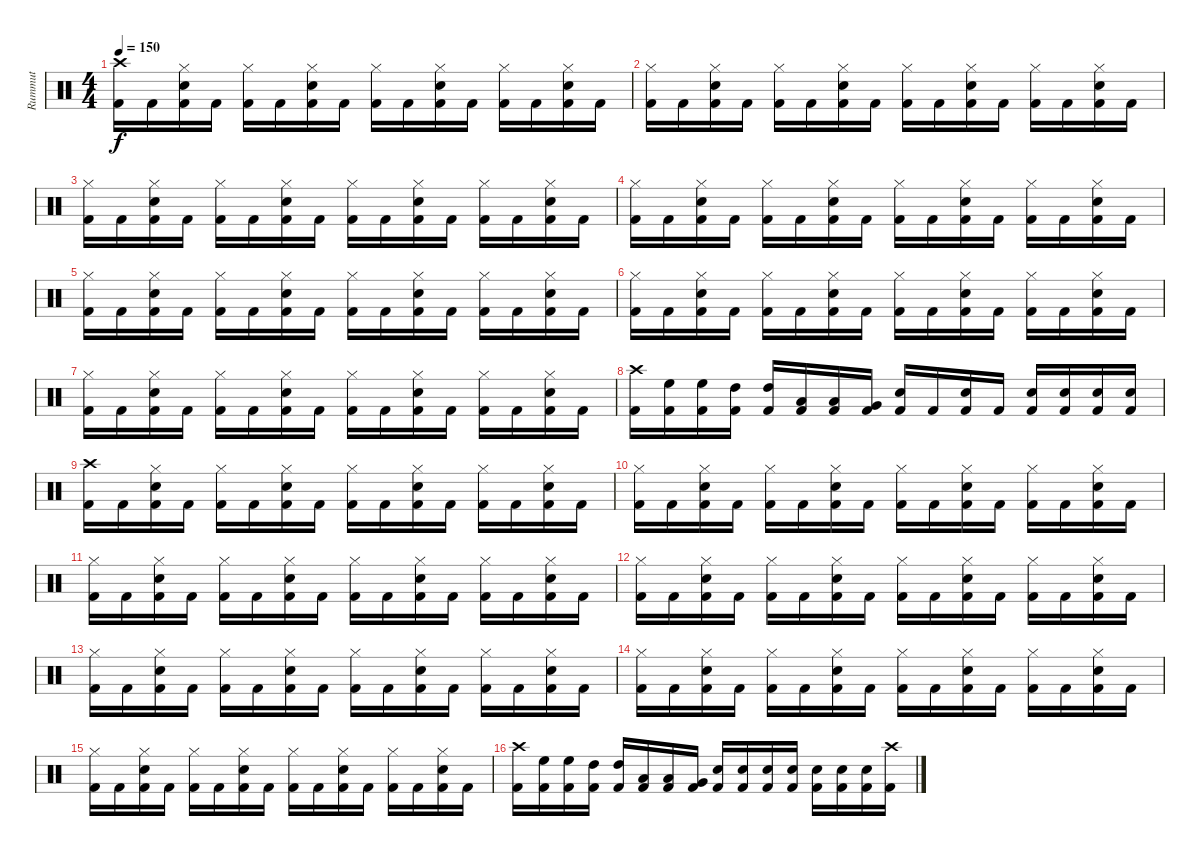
\track ("Rummut" "Rummut") {instrument percussion}
\staff {score}
\articulation defaults
\ts (4 4)
\tempo 150
\clef neutral
\ks c
("Crash high (hit)" "Kick (hit) 2").16{dy f} "Kick (hit) 2".16 ("Snare (hit) 2" "Hi-Hat (closed)" "Kick (hit) 2").16 "Kick (hit) 2".16 ("Hi-Hat (closed)" "Kick (hit) 2").16 "Kick (hit) 2".16 ("Snare (hit) 2" "Hi-Hat (closed)" "Kick (hit) 2").16 "Kick (hit) 2".16 ("Hi-Hat (closed)" "Kick (hit) 2").16 "Kick (hit) 2".16 ("Snare (hit) 2" "Hi-Hat (closed)" "Kick (hit) 2").16 "Kick (hit) 2".16 ("Hi-Hat (closed)" "Kick (hit) 2").16 "Kick (hit) 2".16 ("Snare (hit) 2" "Hi-Hat (closed)" "Kick (hit) 2").16 "Kick (hit) 2".16 |
("Hi-Hat (closed)" "Kick (hit) 2").16 "Kick (hit) 2".16 ("Snare (hit) 2" "Hi-Hat (closed)" "Kick (hit) 2").16 "Kick (hit) 2".16 ("Hi-Hat (closed)" "Kick (hit) 2").16 "Kick (hit) 2".16 ("Snare (hit) 2" "Hi-Hat (closed)" "Kick (hit) 2").16 "Kick (hit) 2".16 ("Hi-Hat (closed)" "Kick (hit) 2").16 "Kick (hit) 2".16 ("Snare (hit) 2" "Hi-Hat (closed)" "Kick (hit) 2").16 "Kick (hit) 2".16 ("Hi-Hat (closed)" "Kick (hit) 2").16 "Kick (hit) 2".16 ("Snare (hit) 2" "Hi-Hat (closed)" "Kick (hit) 2").16 "Kick (hit) 2".16 |
("Hi-Hat (closed)" "Kick (hit) 2").16 "Kick (hit) 2".16 ("Snare (hit) 2" "Hi-Hat (closed)" "Kick (hit) 2").16 "Kick (hit) 2".16 ("Hi-Hat (closed)" "Kick (hit) 2").16 "Kick (hit) 2".16 ("Snare (hit) 2" "Hi-Hat (closed)" "Kick (hit) 2").16 "Kick (hit) 2".16 ("Hi-Hat (closed)" "Kick (hit) 2").16 "Kick (hit) 2".16 ("Snare (hit) 2" "Hi-Hat (closed)" "Kick (hit) 2").16 "Kick (hit) 2".16 ("Hi-Hat (closed)" "Kick (hit) 2").16 "Kick (hit) 2".16 ("Snare (hit) 2" "Hi-Hat (closed)" "Kick (hit) 2").16 "Kick (hit) 2".16 |
("Hi-Hat (closed)" "Kick (hit) 2").16 "Kick (hit) 2".16 ("Snare (hit) 2" "Hi-Hat (closed)" "Kick (hit) 2").16 "Kick (hit) 2".16 ("Hi-Hat (closed)" "Kick (hit) 2").16 "Kick (hit) 2".16 ("Snare (hit) 2" "Hi-Hat (closed)" "Kick (hit) 2").16 "Kick (hit) 2".16 ("Hi-Hat (closed)" "Kick (hit) 2").16 "Kick (hit) 2".16 ("Snare (hit) 2" "Hi-Hat (closed)" "Kick (hit) 2").16 "Kick (hit) 2".16 ("Hi-Hat (closed)" "Kick (hit) 2").16 "Kick (hit) 2".16 ("Snare (hit) 2" "Hi-Hat (closed)" "Kick (hit) 2").16 "Kick (hit) 2".16 |
("Hi-Hat (closed)" "Kick (hit) 2").16 "Kick (hit) 2".16 ("Snare (hit) 2" "Hi-Hat (closed)" "Kick (hit) 2").16 "Kick (hit) 2".16 ("Hi-Hat (closed)" "Kick (hit) 2").16 "Kick (hit) 2".16 ("Snare (hit) 2" "Hi-Hat (closed)" "Kick (hit) 2").16 "Kick (hit) 2".16 ("Hi-Hat (closed)" "Kick (hit) 2").16 "Kick (hit) 2".16 ("Snare (hit) 2" "Hi-Hat (closed)" "Kick (hit) 2").16 "Kick (hit) 2".16 ("Hi-Hat (closed)" "Kick (hit) 2").16 "Kick (hit) 2".16 ("Snare (hit) 2" "Hi-Hat (closed)" "Kick (hit) 2").16 "Kick (hit) 2".16 |
("Hi-Hat (closed)" "Kick (hit) 2").16 "Kick (hit) 2".16 ("Snare (hit) 2" "Hi-Hat (closed)" "Kick (hit) 2").16 "Kick (hit) 2".16 ("Hi-Hat (closed)" "Kick (hit) 2").16 "Kick (hit) 2".16 ("Snare (hit) 2" "Hi-Hat (closed)" "Kick (hit) 2").16 "Kick (hit) 2".16 ("Hi-Hat (closed)" "Kick (hit) 2").16 "Kick (hit) 2".16 ("Snare (hit) 2" "Hi-Hat (closed)" "Kick (hit) 2").16 "Kick (hit) 2".16 ("Hi-Hat (closed)" "Kick (hit) 2").16 "Kick (hit) 2".16 ("Snare (hit) 2" "Hi-Hat (closed)" "Kick (hit) 2").16 "Kick (hit) 2".16 |
("Hi-Hat (closed)" "Kick (hit) 2").16 "Kick (hit) 2".16 ("Snare (hit) 2" "Hi-Hat (closed)" "Kick (hit) 2").16 "Kick (hit) 2".16 ("Hi-Hat (closed)" "Kick (hit) 2").16 "Kick (hit) 2".16 ("Snare (hit) 2" "Hi-Hat (closed)" "Kick (hit) 2").16 "Kick (hit) 2".16 ("Hi-Hat (closed)" "Kick (hit) 2").16 "Kick (hit) 2".16 ("Snare (hit) 2" "Hi-Hat (closed)" "Kick (hit) 2").16 "Kick (hit) 2".16 ("Hi-Hat (closed)" "Kick (hit) 2").16 "Kick (hit) 2".16 ("Snare (hit) 2" "Hi-Hat (closed)" "Kick (hit) 2").16 "Kick (hit) 2".16 |
("Crash high (hit)" "Kick (hit) 2").16 ("High Floor Tom (hit)" "Kick (hit) 2").16 ("High Floor Tom (hit)" "Kick (hit) 2").16 ("High Tom (hit)" "Kick (hit) 2").16 ("High Tom (hit)" "Kick (hit) 2").16 ("Low Tom (hit)" "Kick (hit) 2").16 ("Low Tom (hit)" "Kick (hit) 2").16 ("Very Low Tom (hit)" "Kick (hit) 2").16 ("Snare (hit) 2" "Kick (hit) 2").16 "Kick (hit) 2".16 ("Snare (hit) 2" "Kick (hit) 2").16 "Kick (hit) 2".16 ("Snare (hit) 2" "Kick (hit) 2").16 ("Snare (hit) 2" "Kick (hit) 2").16 ("Snare (hit) 2" "Kick (hit) 2").16 ("Snare (hit) 2" "Kick (hit) 2").16 |
("Crash high (hit)" "Kick (hit) 2").16 "Kick (hit) 2".16 ("Snare (hit) 2" "Hi-Hat (closed)" "Kick (hit) 2").16 "Kick (hit) 2".16 ("Hi-Hat (closed)" "Kick (hit) 2").16 "Kick (hit) 2".16 ("Snare (hit) 2" "Hi-Hat (closed)" "Kick (hit) 2").16 "Kick (hit) 2".16 ("Hi-Hat (closed)" "Kick (hit) 2").16 "Kick (hit) 2".16 ("Snare (hit) 2" "Hi-Hat (closed)" "Kick (hit) 2").16 "Kick (hit) 2".16 ("Hi-Hat (closed)" "Kick (hit) 2").16 "Kick (hit) 2".16 ("Snare (hit) 2" "Hi-Hat (closed)" "Kick (hit) 2").16 "Kick (hit) 2".16 |
("Hi-Hat (closed)" "Kick (hit) 2").16 "Kick (hit) 2".16 ("Snare (hit) 2" "Hi-Hat (closed)" "Kick (hit) 2").16 "Kick (hit) 2".16 ("Hi-Hat (closed)" "Kick (hit) 2").16 "Kick (hit) 2".16 ("Snare (hit) 2" "Hi-Hat (closed)" "Kick (hit) 2").16 "Kick (hit) 2".16 ("Hi-Hat (closed)" "Kick (hit) 2").16 "Kick (hit) 2".16 ("Snare (hit) 2" "Hi-Hat (closed)" "Kick (hit) 2").16 "Kick (hit) 2".16 ("Hi-Hat (closed)" "Kick (hit) 2").16 "Kick (hit) 2".16 ("Snare (hit) 2" "Hi-Hat (closed)" "Kick (hit) 2").16 "Kick (hit) 2".16 |
("Hi-Hat (closed)" "Kick (hit) 2").16 "Kick (hit) 2".16 ("Snare (hit) 2" "Hi-Hat (closed)" "Kick (hit) 2").16 "Kick (hit) 2".16 ("Hi-Hat (closed)" "Kick (hit) 2").16 "Kick (hit) 2".16 ("Snare (hit) 2" "Hi-Hat (closed)" "Kick (hit) 2").16 "Kick (hit) 2".16 ("Hi-Hat (closed)" "Kick (hit) 2").16 "Kick (hit) 2".16 ("Snare (hit) 2" "Hi-Hat (closed)" "Kick (hit) 2").16 "Kick (hit) 2".16 ("Hi-Hat (closed)" "Kick (hit) 2").16 "Kick (hit) 2".16 ("Snare (hit) 2" "Hi-Hat (closed)" "Kick (hit) 2").16 "Kick (hit) 2".16 |
("Hi-Hat (closed)" "Kick (hit) 2").16 "Kick (hit) 2".16 ("Snare (hit) 2" "Hi-Hat (closed)" "Kick (hit) 2").16 "Kick (hit) 2".16 ("Hi-Hat (closed)" "Kick (hit) 2").16 "Kick (hit) 2".16 ("Snare (hit) 2" "Hi-Hat (closed)" "Kick (hit) 2").16 "Kick (hit) 2".16 ("Hi-Hat (closed)" "Kick (hit) 2").16 "Kick (hit) 2".16 ("Snare (hit) 2" "Hi-Hat (closed)" "Kick (hit) 2").16 "Kick (hit) 2".16 ("Hi-Hat (closed)" "Kick (hit) 2").16 "Kick (hit) 2".16 ("Snare (hit) 2" "Hi-Hat (closed)" "Kick (hit) 2").16 "Kick (hit) 2".16 |
("Hi-Hat (closed)" "Kick (hit) 2").16 "Kick (hit) 2".16 ("Snare (hit) 2" "Hi-Hat (closed)" "Kick (hit) 2").16 "Kick (hit) 2".16 ("Hi-Hat (closed)" "Kick (hit) 2").16 "Kick (hit) 2".16 ("Snare (hit) 2" "Hi-Hat (closed)" "Kick (hit) 2").16 "Kick (hit) 2".16 ("Hi-Hat (closed)" "Kick (hit) 2").16 "Kick (hit) 2".16 ("Snare (hit) 2" "Hi-Hat (closed)" "Kick (hit) 2").16 "Kick (hit) 2".16 ("Hi-Hat (closed)" "Kick (hit) 2").16 "Kick (hit) 2".16 ("Snare (hit) 2" "Hi-Hat (closed)" "Kick (hit) 2").16 "Kick (hit) 2".16 |
("Hi-Hat (closed)" "Kick (hit) 2").16 "Kick (hit) 2".16 ("Snare (hit) 2" "Hi-Hat (closed)" "Kick (hit) 2").16 "Kick (hit) 2".16 ("Hi-Hat (closed)" "Kick (hit) 2").16 "Kick (hit) 2".16 ("Snare (hit) 2" "Hi-Hat (closed)" "Kick (hit) 2").16 "Kick (hit) 2".16 ("Hi-Hat (closed)" "Kick (hit) 2").16 "Kick (hit) 2".16 ("Snare (hit) 2" "Hi-Hat (closed)" "Kick (hit) 2").16 "Kick (hit) 2".16 ("Hi-Hat (closed)" "Kick (hit) 2").16 "Kick (hit) 2".16 ("Snare (hit) 2" "Hi-Hat (closed)" "Kick (hit) 2").16 "Kick (hit) 2".16 |
("Hi-Hat (closed)" "Kick (hit) 2").16 "Kick (hit) 2".16 ("Snare (hit) 2" "Hi-Hat (closed)" "Kick (hit) 2").16 "Kick (hit) 2".16 ("Hi-Hat (closed)" "Kick (hit) 2").16 "Kick (hit) 2".16 ("Snare (hit) 2" "Hi-Hat (closed)" "Kick (hit) 2").16 "Kick (hit) 2".16 ("Hi-Hat (closed)" "Kick (hit) 2").16 "Kick (hit) 2".16 ("Snare (hit) 2" "Hi-Hat (closed)" "Kick (hit) 2").16 "Kick (hit) 2".16 ("Hi-Hat (closed)" "Kick (hit) 2").16 "Kick (hit) 2".16 ("Snare (hit) 2" "Hi-Hat (closed)" "Kick (hit) 2").16 "Kick (hit) 2".16 |
("Crash high (hit)" "Kick (hit) 2").16 ("High Floor Tom (hit)" "Kick (hit) 2").16 ("High Floor Tom (hit)" "Kick (hit) 2").16 ("High Tom (hit)" "Kick (hit) 2").16 ("High Tom (hit)" "Kick (hit) 2").16 ("Low Tom (hit)" "Kick (hit) 2").16 ("Low Tom (hit)" "Kick (hit) 2").16 ("Very Low Tom (hit)" "Kick (hit) 2").16 ("Snare (hit) 2" "Kick (hit) 2").16 ("Snare (hit) 2" "Kick (hit) 2").16 ("Snare (hit) 2" "Kick (hit) 2").16 ("Snare (hit) 2" "Kick (hit) 2").16 ("Snare (hit) 2" "Kick (hit) 2").16 ("Snare (hit) 2" "Kick (hit) 2").16 ("Snare (hit) 2" "Kick (hit) 2").16 ("Crash high (hit)" "Kick (hit) 2").16
